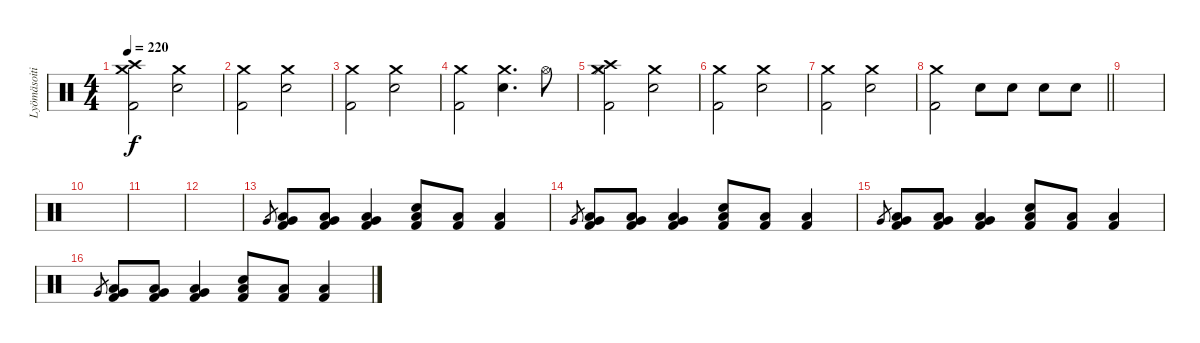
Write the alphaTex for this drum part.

\track ("Lyömäsoitin" "Lyömäsoiti") {instrument percussion}
\staff {score}
\articulation defaults
\ts (4 4)
\section ("" "")
\tempo 220
\clef neutral
\ks c
("Crash medium (hit)" "Crash high (hit)" "Kick (hit) 2").2{dy f} ("Crash medium (hit)" "Electric Snare (hit)").2 |
("Crash medium (hit)" "Kick (hit) 2").2 ("Crash medium (hit)" "Electric Snare (hit)").2 |
("Crash medium (hit)" "Kick (hit) 2").2 ("Crash medium (hit)" "Electric Snare (hit)").2 |
("Crash medium (hit)" "Kick (hit) 2").2 ("Crash medium (hit)" "Electric Snare (hit)").4{d} "Hi-Hat (open)".8 |
("Crash medium (hit)" "Crash high (hit)" "Hi-Hat (closed)" "Kick (hit) 2").2 ("Crash medium (hit)" "Electric Snare (hit)").2 |
("Crash medium (hit)" "Kick (hit) 2").2 ("Crash medium (hit)" "Electric Snare (hit)").2 |
("Crash medium (hit)" "Kick (hit) 2").2 ("Crash medium (hit)" "Electric Snare (hit)").2 |
\barLineRight lightlight
("Crash medium (hit)" "Kick (hit) 2").2 "Electric Snare (hit)".8 "Electric Snare (hit)".8 "Electric Snare (hit)".8 "Electric Snare (hit)".8 |
\section ("" "")
|
|
|
|
"Very Low Tom (hit)".8{gr} ("Very Low Tom (hit)" "Low Floor Tom (hit)" "Kick (hit) 2").8 ("Very Low Tom (hit)" "Low Floor Tom (hit)" "Kick (hit) 2").8 ("Very Low Tom (hit)" "Low Floor Tom (hit)" "Kick (hit) 2").4 ("Electric Snare (hit)" "Low Floor Tom (hit)" "Kick (hit) 2").8 ("Low Floor Tom (hit)" "Kick (hit) 2").8 ("Low Floor Tom (hit)" "Kick (hit) 2").4 |
"Very Low Tom (hit)".8{gr} ("Very Low Tom (hit)" "Low Floor Tom (hit)" "Kick (hit) 2").8 ("Very Low Tom (hit)" "Low Floor Tom (hit)" "Kick (hit) 2").8 ("Very Low Tom (hit)" "Low Floor Tom (hit)" "Kick (hit) 2").4 ("Electric Snare (hit)" "Low Floor Tom (hit)" "Kick (hit) 2").8 ("Low Floor Tom (hit)" "Kick (hit) 2").8 ("Low Floor Tom (hit)" "Kick (hit) 2").4 |
"Very Low Tom (hit)".8{gr} ("Very Low Tom (hit)" "Low Floor Tom (hit)" "Kick (hit) 2").8 ("Very Low Tom (hit)" "Low Floor Tom (hit)" "Kick (hit) 2").8 ("Very Low Tom (hit)" "Low Floor Tom (hit)" "Kick (hit) 2").4 ("Electric Snare (hit)" "Low Floor Tom (hit)" "Kick (hit) 2").8 ("Low Floor Tom (hit)" "Kick (hit) 2").8 ("Low Floor Tom (hit)" "Kick (hit) 2").4 |
"Very Low Tom (hit)".8{gr} ("Very Low Tom (hit)" "Low Floor Tom (hit)" "Kick (hit) 2").8 ("Very Low Tom (hit)" "Low Floor Tom (hit)" "Kick (hit) 2").8 ("Very Low Tom (hit)" "Low Floor Tom (hit)" "Kick (hit) 2").4 ("Electric Snare (hit)" "Low Floor Tom (hit)" "Kick (hit) 2").8 ("Low Floor Tom (hit)" "Kick (hit) 2").8 ("Low Floor Tom (hit)" "Kick (hit) 2").4
